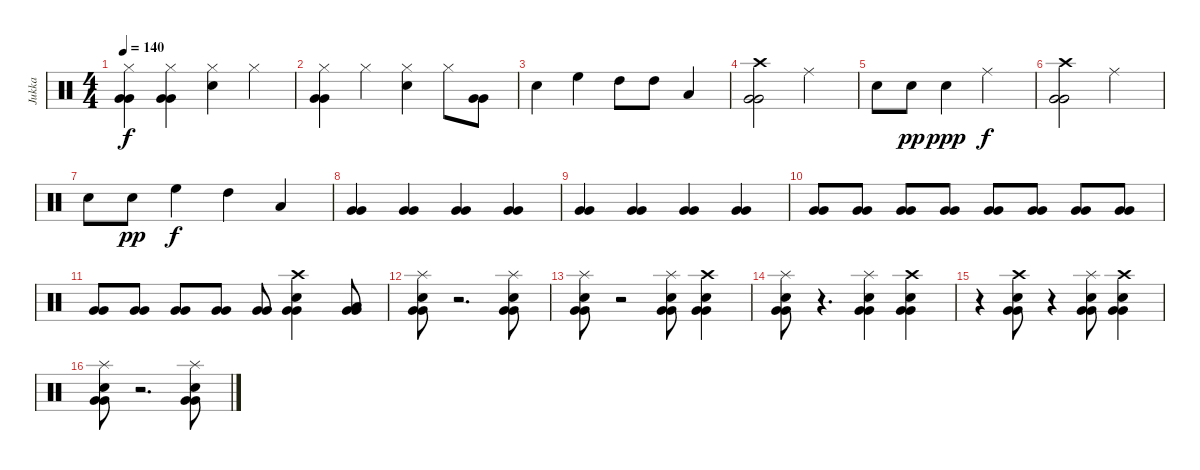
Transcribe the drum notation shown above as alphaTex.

\track ("Jukka" "Jukka") {instrument percussion}
\staff {score}
\articulation defaults
\ts (4 4)
\tempo 140
\clef neutral
\ks c
("Hi-Hat (closed)" "Very Low Tom (hit)" "Very Low Tom (hit)").4{dy f} ("Hi-Hat (closed)" "Very Low Tom (hit)" "Very Low Tom (hit)").4 ("Hi-Hat (closed)" "Electric Snare (hit)").4 "Hi-Hat (closed)".4 |
("Hi-Hat (closed)" "Very Low Tom (hit)" "Very Low Tom (hit)").4 "Hi-Hat (closed)".4 ("Hi-Hat (closed)" "Electric Snare (hit)").4 "Hi-Hat (closed)".8 ("Very Low Tom (hit)" "Very Low Tom (hit)").8 |
"Electric Snare (hit)".4 "High Floor Tom (hit)".4 "High Tom (hit)".8 "High Tom (hit)".8 "Low Tom (hit)".4 |
("Crash high (hit)" "Very Low Tom (hit)" "Very Low Tom (hit)").2 "Ride (middle)".2 |
"Electric Snare (hit)".8 "Electric Snare (hit)".8{dy pp} "Electric Snare (hit)".4{dy ppp} "Ride (middle)".2{dy f} |
("Crash high (hit)" "Very Low Tom (hit)" "Very Low Tom (hit)").2 "Ride (middle)".2 |
"Electric Snare (hit)".8 "Electric Snare (hit)".8{dy pp} "High Floor Tom (hit)".4{dy f} "High Tom (hit)".4 "Low Tom (hit)".4 |
("Very Low Tom (hit)" "Very Low Tom (hit)").4 ("Very Low Tom (hit)" "Very Low Tom (hit)").4 ("Very Low Tom (hit)" "Very Low Tom (hit)").4 ("Very Low Tom (hit)" "Very Low Tom (hit)").4 |
("Very Low Tom (hit)" "Very Low Tom (hit)").4 ("Very Low Tom (hit)" "Very Low Tom (hit)").4 ("Very Low Tom (hit)" "Very Low Tom (hit)").4 ("Very Low Tom (hit)" "Very Low Tom (hit)").4 |
("Very Low Tom (hit)" "Very Low Tom (hit)").8 ("Very Low Tom (hit)" "Very Low Tom (hit)").8 ("Very Low Tom (hit)" "Very Low Tom (hit)").8 ("Very Low Tom (hit)" "Very Low Tom (hit)").8 ("Very Low Tom (hit)" "Very Low Tom (hit)").8 ("Very Low Tom (hit)" "Very Low Tom (hit)").8 ("Very Low Tom (hit)" "Very Low Tom (hit)").8 ("Very Low Tom (hit)" "Very Low Tom (hit)").8 |
("Very Low Tom (hit)" "Very Low Tom (hit)").8 ("Very Low Tom (hit)" "Very Low Tom (hit)").8 ("Very Low Tom (hit)" "Very Low Tom (hit)").8 ("Very Low Tom (hit)" "Very Low Tom (hit)").8 ("Very Low Tom (hit)" "Very Low Tom (hit)").8 ("Crash high (hit)" "Electric Snare (hit)" "Very Low Tom (hit)" "Very Low Tom (hit)").4 ("Low Tom (hit)" "Very Low Tom (hit)" "Very Low Tom (hit)").8 |
("Splash (hit)" "Electric Snare (hit)" "Very Low Tom (hit)" "Very Low Tom (hit)").8 r.2{d} ("Splash (hit)" "Electric Snare (hit)" "Very Low Tom (hit)" "Very Low Tom (hit)").8 |
("Splash (hit)" "Electric Snare (hit)" "Very Low Tom (hit)" "Very Low Tom (hit)").8 r.2 ("Splash (hit)" "Electric Snare (hit)" "Very Low Tom (hit)" "Very Low Tom (hit)").8 ("Crash high (hit)" "Electric Snare (hit)" "Very Low Tom (hit)" "Very Low Tom (hit)").4 |
("Splash (hit)" "Electric Snare (hit)" "Very Low Tom (hit)" "Very Low Tom (hit)").8 r.4{d} ("Splash (hit)" "Electric Snare (hit)" "Very Low Tom (hit)" "Very Low Tom (hit)").4 ("Crash high (hit)" "Electric Snare (hit)" "Very Low Tom (hit)" "Very Low Tom (hit)").4 |
r.4 ("Crash high (hit)" "Electric Snare (hit)" "Very Low Tom (hit)" "Very Low Tom (hit)").8 r.4 ("Splash (hit)" "Electric Snare (hit)" "Very Low Tom (hit)" "Very Low Tom (hit)").8 ("Crash high (hit)" "Electric Snare (hit)" "Very Low Tom (hit)" "Very Low Tom (hit)").4 |
("Splash (hit)" "Electric Snare (hit)" "Very Low Tom (hit)" "Very Low Tom (hit)").8 r.2{d} ("Splash (hit)" "Electric Snare (hit)" "Very Low Tom (hit)" "Very Low Tom (hit)").8
